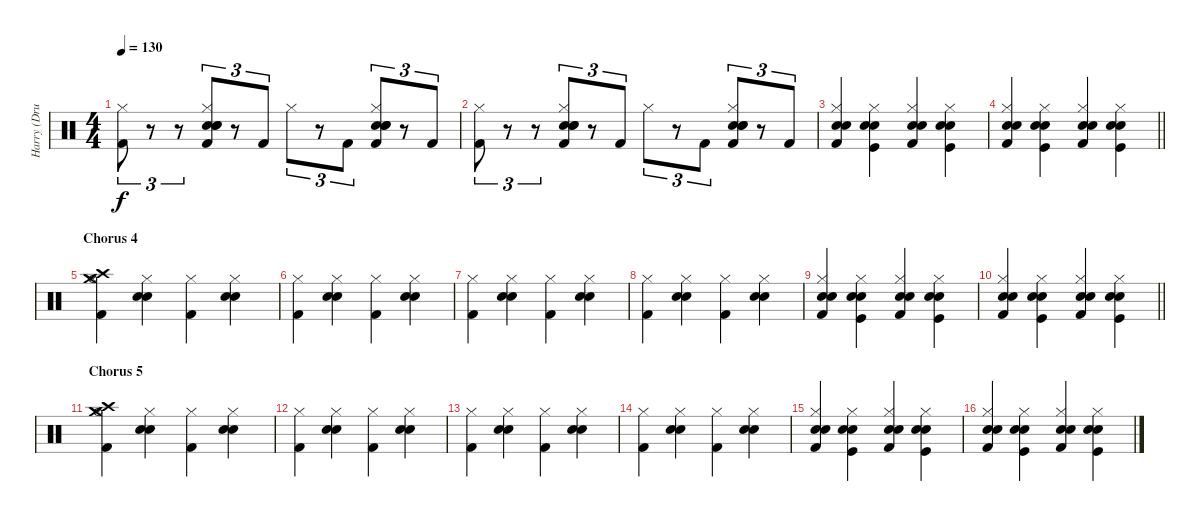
\track ("Harry (Drums)" "Harry (Dru") {instrument percussion}
\staff {score}
\articulation defaults
\ts (4 4)
\tempo 130
\clef neutral
\ks c
("Kick (hit) 2" "Hi-Hat (closed)").8{tu (3 2) dy f} r.8{tu (3 2)} r.8{tu (3 2)} ("Kick (hit) 2" "Hi-Hat (closed)" "Hand Clap (hit)" "Hand Clap (hit)" "Hand Clap (hit)").8{tu (3 2)} r.8{tu (3 2)} "Kick (hit) 2".8{tu (3 2)} "Hi-Hat (closed)".8{tu (3 2)} r.8{tu (3 2)} "Kick (hit) 2".8{tu (3 2)} ("Kick (hit) 2" "Hi-Hat (closed)" "Hand Clap (hit)" "Hand Clap (hit)" "Hand Clap (hit)").8{tu (3 2)} r.8{tu (3 2)} "Kick (hit) 2".8{tu (3 2)} |
("Kick (hit) 2" "Hi-Hat (closed)").8{tu (3 2)} r.8{tu (3 2)} r.8{tu (3 2)} ("Kick (hit) 2" "Hi-Hat (closed)" "Hand Clap (hit)" "Hand Clap (hit)" "Hand Clap (hit)").8{tu (3 2)} r.8{tu (3 2)} "Kick (hit) 2".8{tu (3 2)} "Hi-Hat (closed)".8{tu (3 2)} r.8{tu (3 2)} "Kick (hit) 2".8{tu (3 2)} ("Kick (hit) 2" "Hi-Hat (closed)" "Hand Clap (hit)" "Hand Clap (hit)" "Hand Clap (hit)").8{tu (3 2)} r.8{tu (3 2)} "Kick (hit) 2".8{tu (3 2)} |
("Hi-Hat (closed)" "Electric Snare (hit)" "Snare (hit) 2" "Kick (hit) 2").4 ("Hi-Hat (closed)" "Kick (hit)" "Snare (hit) 2" "Electric Snare (hit)").4 ("Hi-Hat (closed)" "Electric Snare (hit)" "Snare (hit) 2" "Kick (hit) 2").4 ("Hi-Hat (closed)" "Kick (hit)" "Snare (hit) 2" "Electric Snare (hit)").4 |
\barLineRight lightlight
("Hi-Hat (closed)" "Electric Snare (hit)" "Snare (hit) 2" "Kick (hit) 2").4 ("Hi-Hat (closed)" "Kick (hit)" "Snare (hit) 2" "Electric Snare (hit)").4 ("Hi-Hat (closed)" "Electric Snare (hit)" "Snare (hit) 2" "Kick (hit) 2").4 ("Hi-Hat (closed)" "Kick (hit)" "Snare (hit) 2" "Electric Snare (hit)").4 |
\section ("" "Chorus 4")
("Crash high (hit)" "Crash medium (hit)" "Hi-Hat (open)" "Kick (hit) 2").4{volume 13} ("Hi-Hat (closed)" "Snare (hit) 2" "Electric Snare (hit)").4 ("Hi-Hat (closed)" "Kick (hit) 2").4 ("Hi-Hat (closed)" "Snare (hit) 2" "Electric Snare (hit)").4 |
("Hi-Hat (closed)" "Kick (hit) 2").4 ("Hi-Hat (closed)" "Snare (hit) 2" "Electric Snare (hit)").4 ("Hi-Hat (closed)" "Kick (hit) 2").4 ("Hi-Hat (closed)" "Snare (hit) 2" "Electric Snare (hit)").4 |
("Hi-Hat (closed)" "Kick (hit) 2").4 ("Hi-Hat (closed)" "Snare (hit) 2" "Electric Snare (hit)").4 ("Hi-Hat (closed)" "Kick (hit) 2").4 ("Hi-Hat (closed)" "Snare (hit) 2" "Electric Snare (hit)").4 |
("Hi-Hat (closed)" "Kick (hit) 2").4 ("Hi-Hat (closed)" "Snare (hit) 2" "Electric Snare (hit)").4 ("Hi-Hat (closed)" "Kick (hit) 2").4 ("Hi-Hat (closed)" "Snare (hit) 2" "Electric Snare (hit)").4 |
("Hi-Hat (closed)" "Electric Snare (hit)" "Snare (hit) 2" "Kick (hit) 2").4 ("Hi-Hat (closed)" "Kick (hit)" "Snare (hit) 2" "Electric Snare (hit)").4 ("Hi-Hat (closed)" "Electric Snare (hit)" "Snare (hit) 2" "Kick (hit) 2").4 ("Hi-Hat (closed)" "Kick (hit)" "Snare (hit) 2" "Electric Snare (hit)").4 |
\barLineRight lightlight
("Hi-Hat (closed)" "Electric Snare (hit)" "Snare (hit) 2" "Kick (hit) 2").4 ("Hi-Hat (closed)" "Kick (hit)" "Snare (hit) 2" "Electric Snare (hit)").4 ("Hi-Hat (closed)" "Electric Snare (hit)" "Snare (hit) 2" "Kick (hit) 2").4 ("Hi-Hat (closed)" "Kick (hit)" "Snare (hit) 2" "Electric Snare (hit)").4 |
\section ("" "Chorus 5")
("Crash high (hit)" "Crash medium (hit)" "Hi-Hat (open)" "Kick (hit) 2").4{volume 13} ("Hi-Hat (closed)" "Snare (hit) 2" "Electric Snare (hit)").4 ("Hi-Hat (closed)" "Kick (hit) 2").4 ("Hi-Hat (closed)" "Snare (hit) 2" "Electric Snare (hit)").4 |
("Hi-Hat (closed)" "Kick (hit) 2").4 ("Hi-Hat (closed)" "Snare (hit) 2" "Electric Snare (hit)").4 ("Hi-Hat (closed)" "Kick (hit) 2").4 ("Hi-Hat (closed)" "Snare (hit) 2" "Electric Snare (hit)").4 |
("Hi-Hat (closed)" "Kick (hit) 2").4 ("Hi-Hat (closed)" "Snare (hit) 2" "Electric Snare (hit)").4 ("Hi-Hat (closed)" "Kick (hit) 2").4 ("Hi-Hat (closed)" "Snare (hit) 2" "Electric Snare (hit)").4 |
("Hi-Hat (closed)" "Kick (hit) 2").4 ("Hi-Hat (closed)" "Snare (hit) 2" "Electric Snare (hit)").4 ("Hi-Hat (closed)" "Kick (hit) 2").4 ("Hi-Hat (closed)" "Snare (hit) 2" "Electric Snare (hit)").4 |
("Hi-Hat (closed)" "Electric Snare (hit)" "Snare (hit) 2" "Kick (hit) 2").4 ("Hi-Hat (closed)" "Kick (hit)" "Snare (hit) 2" "Electric Snare (hit)").4 ("Hi-Hat (closed)" "Electric Snare (hit)" "Snare (hit) 2" "Kick (hit) 2").4 ("Hi-Hat (closed)" "Kick (hit)" "Snare (hit) 2" "Electric Snare (hit)").4 |
("Hi-Hat (closed)" "Electric Snare (hit)" "Snare (hit) 2" "Kick (hit) 2").4 ("Hi-Hat (closed)" "Kick (hit)" "Snare (hit) 2" "Electric Snare (hit)").4 ("Hi-Hat (closed)" "Electric Snare (hit)" "Snare (hit) 2" "Kick (hit) 2").4 ("Hi-Hat (closed)" "Kick (hit)" "Snare (hit) 2" "Electric Snare (hit)").4
